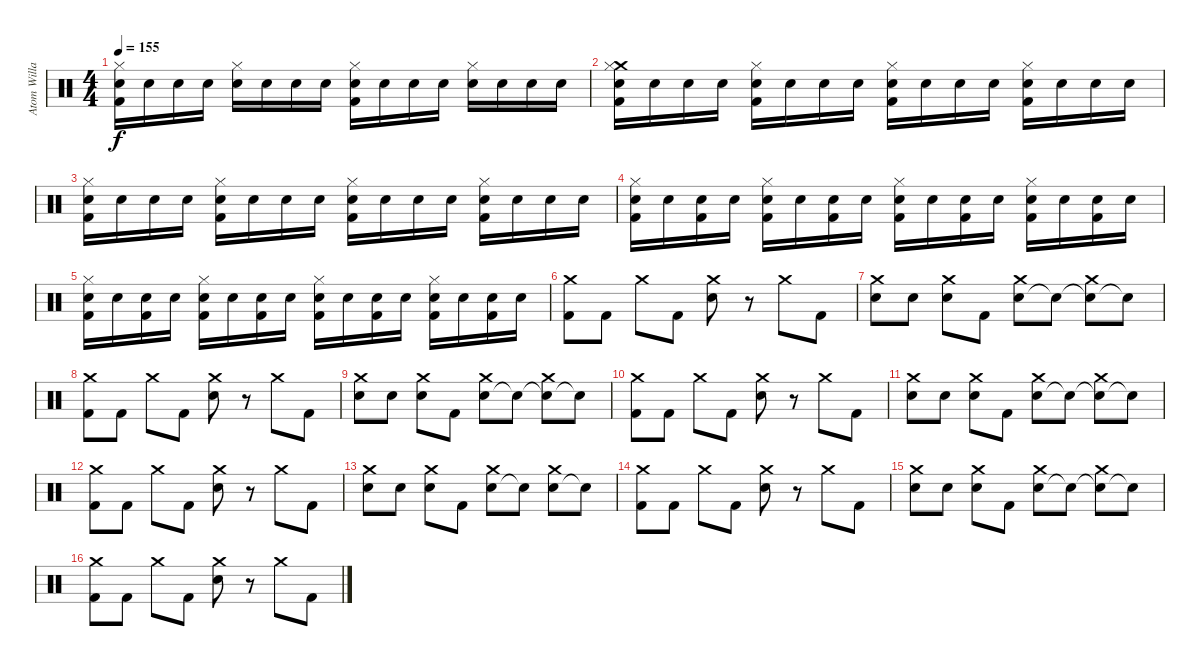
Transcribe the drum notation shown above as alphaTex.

\track ("Atom Willard Drums" "Atom Willa") {instrument percussion}
\staff {score}
\articulation defaults
\ts (4 4)
\tempo 155
\clef neutral
\ks c
("Electric Snare (hit)" "Kick (hit) 2" "Hi-Hat (closed)").16{dy f} "Electric Snare (hit)".16 "Electric Snare (hit)".16 "Electric Snare (hit)".16 ("Electric Snare (hit)" "Hi-Hat (closed)").16 "Electric Snare (hit)".16 "Electric Snare (hit)".16 "Electric Snare (hit)".16 ("Electric Snare (hit)" "Kick (hit) 2" "Hi-Hat (closed)").16 "Electric Snare (hit)".16 "Electric Snare (hit)".16 "Electric Snare (hit)".16 ("Electric Snare (hit)" "Hi-Hat (closed)").16 "Electric Snare (hit)".16 "Electric Snare (hit)".16 "Electric Snare (hit)".16 |
("Electric Snare (hit)" "Kick (hit) 2" "Crash medium (hit)" "Hi-Hat (closed)").16 "Electric Snare (hit)".16 "Electric Snare (hit)".16 "Electric Snare (hit)".16 ("Electric Snare (hit)" "Kick (hit) 2" "Hi-Hat (closed)").16 "Electric Snare (hit)".16 "Electric Snare (hit)".16 "Electric Snare (hit)".16 ("Electric Snare (hit)" "Kick (hit) 2" "Hi-Hat (closed)").16 "Electric Snare (hit)".16 "Electric Snare (hit)".16 "Electric Snare (hit)".16 ("Electric Snare (hit)" "Kick (hit) 2" "Hi-Hat (closed)").16 "Electric Snare (hit)".16 "Electric Snare (hit)".16 "Electric Snare (hit)".16 |
("Electric Snare (hit)" "Kick (hit) 2" "Hi-Hat (closed)").16 "Electric Snare (hit)".16 "Electric Snare (hit)".16 "Electric Snare (hit)".16 ("Electric Snare (hit)" "Kick (hit) 2" "Hi-Hat (closed)").16 "Electric Snare (hit)".16 "Electric Snare (hit)".16 "Electric Snare (hit)".16 ("Electric Snare (hit)" "Kick (hit) 2" "Hi-Hat (closed)").16 "Electric Snare (hit)".16 "Electric Snare (hit)".16 "Electric Snare (hit)".16 ("Electric Snare (hit)" "Kick (hit) 2" "Hi-Hat (closed)").16 "Electric Snare (hit)".16 "Electric Snare (hit)".16 "Electric Snare (hit)".16 |
("Electric Snare (hit)" "Kick (hit) 2" "Hi-Hat (closed)").16 "Electric Snare (hit)".16 ("Electric Snare (hit)" "Kick (hit) 2").16 "Electric Snare (hit)".16 ("Electric Snare (hit)" "Kick (hit) 2" "Hi-Hat (closed)").16 "Electric Snare (hit)".16 ("Electric Snare (hit)" "Kick (hit) 2").16 "Electric Snare (hit)".16 ("Electric Snare (hit)" "Kick (hit) 2" "Hi-Hat (closed)").16 "Electric Snare (hit)".16 ("Electric Snare (hit)" "Kick (hit) 2").16 "Electric Snare (hit)".16 ("Electric Snare (hit)" "Kick (hit) 2" "Hi-Hat (closed)").16 "Electric Snare (hit)".16 ("Electric Snare (hit)" "Kick (hit) 2").16 "Electric Snare (hit)".16 |
("Electric Snare (hit)" "Kick (hit) 2" "Hi-Hat (closed)").16 "Electric Snare (hit)".16 ("Electric Snare (hit)" "Kick (hit) 2").16 "Electric Snare (hit)".16 ("Electric Snare (hit)" "Kick (hit) 2" "Hi-Hat (closed)").16 "Electric Snare (hit)".16 ("Electric Snare (hit)" "Kick (hit) 2").16 "Electric Snare (hit)".16 ("Electric Snare (hit)" "Kick (hit) 2" "Hi-Hat (closed)").16 "Electric Snare (hit)".16 ("Electric Snare (hit)" "Kick (hit) 2").16 "Electric Snare (hit)".16 ("Electric Snare (hit)" "Kick (hit) 2" "Hi-Hat (closed)").16 "Electric Snare (hit)".16 ("Electric Snare (hit)" "Kick (hit) 2").16 "Electric Snare (hit)".16 |
("Kick (hit) 2" "Crash medium (hit)").8 "Kick (hit) 2".8 "Crash medium (hit)".8 "Kick (hit) 2".8 ("Electric Snare (hit)" "Crash medium (hit)").8 r.8 "Crash medium (hit)".8 "Kick (hit) 2".8 |
("Snare (hit)" "Crash medium (hit)").8 "Electric Snare (hit)".8 ("Snare (hit)" "Crash medium (hit)").8 "Kick (hit) 2".8 ("Electric Snare (hit)" "Crash medium (hit)").8 "Snare (hit)"{t}.8 ("Snare (hit)"{t} "Crash medium (hit)").8 "Snare (hit)"{t}.8 |
("Kick (hit) 2" "Crash medium (hit)").8 "Kick (hit) 2".8 "Crash medium (hit)".8 "Kick (hit) 2".8 ("Electric Snare (hit)" "Crash medium (hit)").8 r.8 "Crash medium (hit)".8 "Kick (hit) 2".8 |
("Snare (hit)" "Crash medium (hit)").8 "Electric Snare (hit)".8 ("Snare (hit)" "Crash medium (hit)").8 "Kick (hit) 2".8 ("Electric Snare (hit)" "Crash medium (hit)").8 "Snare (hit)"{t}.8 ("Snare (hit)"{t} "Crash medium (hit)").8 "Snare (hit)"{t}.8 |
("Kick (hit) 2" "Crash medium (hit)").8 "Kick (hit) 2".8 "Crash medium (hit)".8 "Kick (hit) 2".8 ("Electric Snare (hit)" "Crash medium (hit)").8 r.8 "Crash medium (hit)".8 "Kick (hit) 2".8 |
("Snare (hit)" "Crash medium (hit)").8 "Electric Snare (hit)".8 ("Snare (hit)" "Crash medium (hit)").8 "Kick (hit) 2".8 ("Electric Snare (hit)" "Crash medium (hit)").8 "Snare (hit)"{t}.8 ("Snare (hit)"{t} "Crash medium (hit)").8 "Snare (hit)"{t}.8 |
("Kick (hit) 2" "Crash medium (hit)").8 "Kick (hit) 2".8 "Crash medium (hit)".8 "Kick (hit) 2".8 ("Electric Snare (hit)" "Crash medium (hit)").8 r.8 "Crash medium (hit)".8 "Kick (hit) 2".8 |
("Snare (hit)" "Crash medium (hit)").8 "Electric Snare (hit)".8 ("Snare (hit)" "Crash medium (hit)").8 "Kick (hit) 2".8 ("Electric Snare (hit)" "Crash medium (hit)").8 "Snare (hit)"{t}.8 ("Electric Snare (hit)" "Crash medium (hit)").8 "Snare (hit)"{t}.8 |
("Kick (hit) 2" "Crash medium (hit)").8 "Kick (hit) 2".8 "Crash medium (hit)".8 "Kick (hit) 2".8 ("Electric Snare (hit)" "Crash medium (hit)").8 r.8 "Crash medium (hit)".8 "Kick (hit) 2".8 |
("Snare (hit)" "Crash medium (hit)").8 "Electric Snare (hit)".8 ("Snare (hit)" "Crash medium (hit)").8 "Kick (hit) 2".8 ("Electric Snare (hit)" "Crash medium (hit)").8 "Snare (hit)"{t}.8 ("Snare (hit)"{t} "Crash medium (hit)").8 "Snare (hit)"{t}.8 |
("Kick (hit) 2" "Crash medium (hit)").8 "Kick (hit) 2".8 "Crash medium (hit)".8 "Kick (hit) 2".8 ("Electric Snare (hit)" "Crash medium (hit)").8 r.8 "Crash medium (hit)".8 "Kick (hit) 2".8
